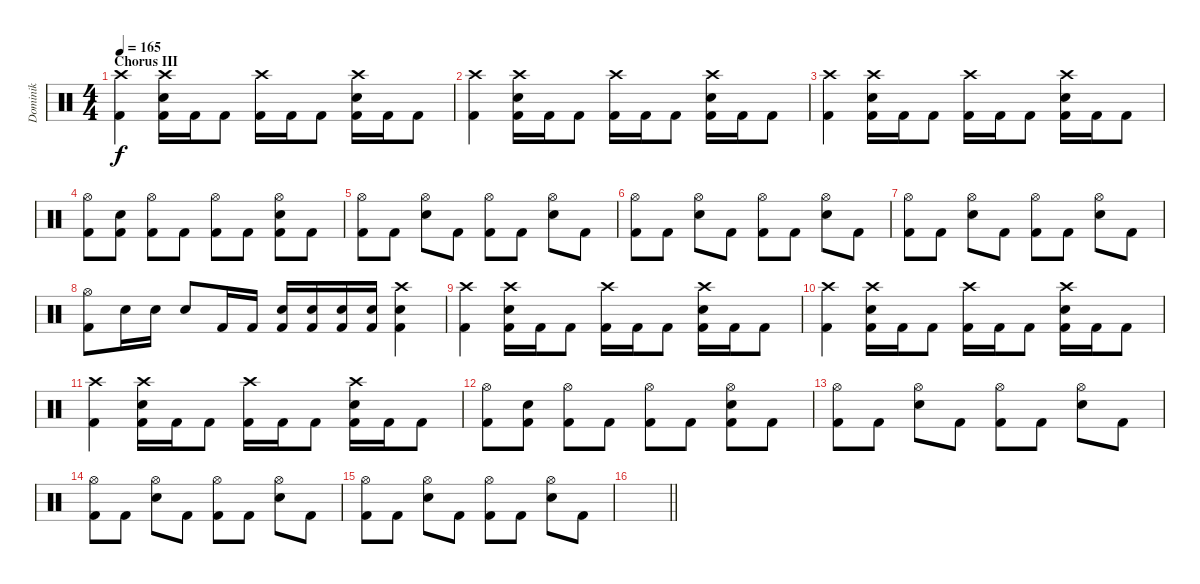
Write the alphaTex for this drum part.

\track ("Dominik" "Dominik") {instrument percussion}
\staff {score}
\articulation defaults
\ts (4 4)
\section ("" "Chorus III")
\tempo 165
\clef neutral
\ks c
("Crash high (hit)" "Kick (hit) 2").4{dy f} ("Crash high (hit)" "Electric Snare (hit)" "Kick (hit) 2").16 "Kick (hit) 2".16 "Kick (hit) 2".8 ("Crash high (hit)" "Kick (hit) 2").16 "Kick (hit) 2".16 "Kick (hit) 2".8 ("Crash high (hit)" "Electric Snare (hit)" "Kick (hit) 2").16 "Kick (hit) 2".16 "Kick (hit) 2".8 |
("Crash high (hit)" "Kick (hit) 2").4 ("Crash high (hit)" "Electric Snare (hit)" "Kick (hit) 2").16 "Kick (hit) 2".16 "Kick (hit) 2".8 ("Crash high (hit)" "Kick (hit) 2").16 "Kick (hit) 2".16 "Kick (hit) 2".8 ("Crash high (hit)" "Electric Snare (hit)" "Kick (hit) 2").16 "Kick (hit) 2".16 "Kick (hit) 2".8 |
("Crash high (hit)" "Kick (hit) 2").4 ("Crash high (hit)" "Electric Snare (hit)" "Kick (hit) 2").16 "Kick (hit) 2".16 "Kick (hit) 2".8 ("Crash high (hit)" "Kick (hit) 2").16 "Kick (hit) 2".16 "Kick (hit) 2".8 ("Crash high (hit)" "Electric Snare (hit)" "Kick (hit) 2").16 "Kick (hit) 2".16 "Kick (hit) 2".8 |
("Hi-Hat (open)" "Kick (hit) 2").8 ("Electric Snare (hit)" "Kick (hit) 2").8 ("Hi-Hat (open)" "Kick (hit) 2").8 "Kick (hit) 2".8 ("Hi-Hat (open)" "Kick (hit) 2").8 "Kick (hit) 2".8 ("Hi-Hat (open)" "Electric Snare (hit)" "Kick (hit) 2").8 "Kick (hit) 2".8 |
("Hi-Hat (open)" "Kick (hit) 2").8 "Kick (hit) 2".8 ("Hi-Hat (open)" "Electric Snare (hit)").8 "Kick (hit) 2".8 ("Hi-Hat (open)" "Kick (hit) 2").8 "Kick (hit) 2".8 ("Hi-Hat (open)" "Electric Snare (hit)").8 "Kick (hit) 2".8 |
("Hi-Hat (open)" "Kick (hit) 2").8 "Kick (hit) 2".8 ("Hi-Hat (open)" "Electric Snare (hit)").8 "Kick (hit) 2".8 ("Hi-Hat (open)" "Kick (hit) 2").8 "Kick (hit) 2".8 ("Hi-Hat (open)" "Electric Snare (hit)").8 "Kick (hit) 2".8 |
("Hi-Hat (open)" "Kick (hit) 2").8 "Kick (hit) 2".8 ("Hi-Hat (open)" "Electric Snare (hit)").8 "Kick (hit) 2".8 ("Hi-Hat (open)" "Kick (hit) 2").8 "Kick (hit) 2".8 ("Hi-Hat (open)" "Electric Snare (hit)").8 "Kick (hit) 2".8 |
("Hi-Hat (open)" "Kick (hit) 2").8 "Electric Snare (hit)".16 "Electric Snare (hit)".16 "Electric Snare (hit)".8 "Kick (hit) 2".16 "Kick (hit) 2".16 ("Electric Snare (hit)" "Kick (hit) 2").16 ("Electric Snare (hit)" "Kick (hit) 2").16 ("Electric Snare (hit)" "Kick (hit) 2").16 ("Electric Snare (hit)" "Kick (hit) 2").16 ("Crash high (hit)" "Electric Snare (hit)" "Kick (hit) 2").4 |
("Crash high (hit)" "Kick (hit) 2").4 ("Crash high (hit)" "Electric Snare (hit)" "Kick (hit) 2").16 "Kick (hit) 2".16 "Kick (hit) 2".8 ("Crash high (hit)" "Kick (hit) 2").16 "Kick (hit) 2".16 "Kick (hit) 2".8 ("Crash high (hit)" "Electric Snare (hit)" "Kick (hit) 2").16 "Kick (hit) 2".16 "Kick (hit) 2".8 |
("Crash high (hit)" "Kick (hit) 2").4 ("Crash high (hit)" "Electric Snare (hit)" "Kick (hit) 2").16 "Kick (hit) 2".16 "Kick (hit) 2".8 ("Crash high (hit)" "Kick (hit) 2").16 "Kick (hit) 2".16 "Kick (hit) 2".8 ("Crash high (hit)" "Electric Snare (hit)" "Kick (hit) 2").16 "Kick (hit) 2".16 "Kick (hit) 2".8 |
("Crash high (hit)" "Kick (hit) 2").4 ("Crash high (hit)" "Electric Snare (hit)" "Kick (hit) 2").16 "Kick (hit) 2".16 "Kick (hit) 2".8 ("Crash high (hit)" "Kick (hit) 2").16 "Kick (hit) 2".16 "Kick (hit) 2".8 ("Crash high (hit)" "Electric Snare (hit)" "Kick (hit) 2").16 "Kick (hit) 2".16 "Kick (hit) 2".8 |
("Hi-Hat (open)" "Kick (hit) 2").8 ("Electric Snare (hit)" "Kick (hit) 2").8 ("Hi-Hat (open)" "Kick (hit) 2").8 "Kick (hit) 2".8 ("Hi-Hat (open)" "Kick (hit) 2").8 "Kick (hit) 2".8 ("Hi-Hat (open)" "Electric Snare (hit)" "Kick (hit) 2").8 "Kick (hit) 2".8 |
("Hi-Hat (open)" "Kick (hit) 2").8 "Kick (hit) 2".8 ("Hi-Hat (open)" "Electric Snare (hit)").8 "Kick (hit) 2".8 ("Hi-Hat (open)" "Kick (hit) 2").8 "Kick (hit) 2".8 ("Hi-Hat (open)" "Electric Snare (hit)").8 "Kick (hit) 2".8 |
("Hi-Hat (open)" "Kick (hit) 2").8 "Kick (hit) 2".8 ("Hi-Hat (open)" "Electric Snare (hit)").8 "Kick (hit) 2".8 ("Hi-Hat (open)" "Kick (hit) 2").8 "Kick (hit) 2".8 ("Hi-Hat (open)" "Electric Snare (hit)").8 "Kick (hit) 2".8 |
("Hi-Hat (open)" "Kick (hit) 2").8 "Kick (hit) 2".8 ("Hi-Hat (open)" "Electric Snare (hit)").8 "Kick (hit) 2".8 ("Hi-Hat (open)" "Kick (hit) 2").8 "Kick (hit) 2".8 ("Hi-Hat (open)" "Electric Snare (hit)").8 "Kick (hit) 2".8 |
\barLineRight lightlight
